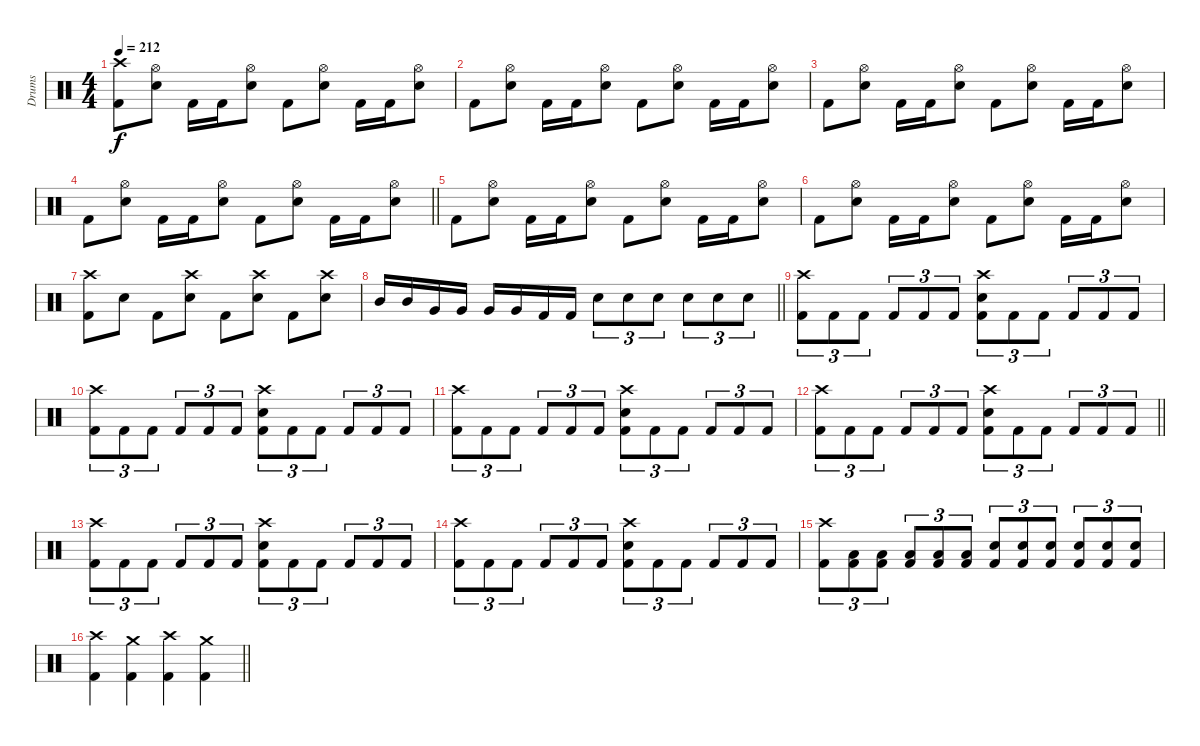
\track ("Drums" "Drums") {instrument percussion}
\staff {score}
\articulation defaults
\ts (4 4)
\tempo 212
\clef neutral
\ks c
("Crash high (hit)" "Kick (hit) 2").8{dy f} ("Hi-Hat (open)" "Electric Snare (hit)").8 "Kick (hit) 2".16 "Kick (hit) 2".16 ("Hi-Hat (open)" "Electric Snare (hit)").8 "Kick (hit) 2".8 ("Hi-Hat (open)" "Electric Snare (hit)").8 "Kick (hit) 2".16 "Kick (hit) 2".16 ("Hi-Hat (open)" "Electric Snare (hit)").8 |
"Kick (hit) 2".8 ("Hi-Hat (open)" "Electric Snare (hit)").8 "Kick (hit) 2".16 "Kick (hit) 2".16 ("Hi-Hat (open)" "Electric Snare (hit)").8 "Kick (hit) 2".8 ("Hi-Hat (open)" "Electric Snare (hit)").8 "Kick (hit) 2".16 "Kick (hit) 2".16 ("Hi-Hat (open)" "Electric Snare (hit)").8 |
"Kick (hit) 2".8 ("Hi-Hat (open)" "Electric Snare (hit)").8 "Kick (hit) 2".16 "Kick (hit) 2".16 ("Hi-Hat (open)" "Electric Snare (hit)").8 "Kick (hit) 2".8 ("Hi-Hat (open)" "Electric Snare (hit)").8 "Kick (hit) 2".16 "Kick (hit) 2".16 ("Hi-Hat (open)" "Electric Snare (hit)").8 |
\barLineRight lightlight "Kick (hit) 2".8
("Hi-Hat (open)" "Electric Snare (hit)").8 "Kick (hit) 2".16 "Kick (hit) 2".16 ("Hi-Hat (open)" "Electric Snare (hit)").8 "Kick (hit) 2".8 ("Hi-Hat (open)" "Electric Snare (hit)").8 "Kick (hit) 2".16 "Kick (hit) 2".16 ("Hi-Hat (open)" "Electric Snare (hit)").8 |
"Kick (hit) 2".8 ("Hi-Hat (open)" "Electric Snare (hit)").8 "Kick (hit) 2".16 "Kick (hit) 2".16 ("Hi-Hat (open)" "Electric Snare (hit)").8 "Kick (hit) 2".8 ("Hi-Hat (open)" "Electric Snare (hit)").8 "Kick (hit) 2".16 "Kick (hit) 2".16 ("Hi-Hat (open)" "Electric Snare (hit)").8 |
"Kick (hit) 2".8 ("Hi-Hat (open)" "Electric Snare (hit)").8 "Kick (hit) 2".16 "Kick (hit) 2".16 ("Hi-Hat (open)" "Electric Snare (hit)").8 "Kick (hit) 2".8 ("Hi-Hat (open)" "Electric Snare (hit)").8 "Kick (hit) 2".16 "Kick (hit) 2".16 ("Hi-Hat (open)" "Electric Snare (hit)").8 |
("Crash high (hit)" "Kick (hit) 2").8 "Electric Snare (hit)".8 "Kick (hit) 2".8 ("Crash high (hit)" "Electric Snare (hit)").8 "Kick (hit) 2".8 ("Crash high (hit)" "Electric Snare (hit)").8 "Kick (hit) 2".8 ("Crash high (hit)" "Electric Snare (hit)").8 |
\barLineRight lightlight "Mid Tom (hit)".16 "Mid Tom (hit)".16 "Very Low Tom (hit)".16 "Very Low Tom (hit)".16 "Very Low Tom (hit)".16 "Very Low Tom (hit)".16 "Kick (hit) 2".16 "Kick (hit) 2".16 "Electric Snare (hit)".8{tu (3 2)} "Electric Snare (hit)".8{tu (3 2)} "Electric Snare (hit)".8{tu (3 2)} "Electric Snare (hit)".8{tu (3 2)} "Electric Snare (hit)".8{tu (3 2)} "Electric Snare (hit)".8{tu (3 2)}
|
("Crash high (hit)" "Kick (hit) 2").8{tu (3 2)} "Kick (hit) 2".8{tu (3 2)} "Kick (hit) 2".8{tu (3 2)} "Kick (hit) 2".8{tu (3 2)} "Kick (hit) 2".8{tu (3 2)} "Kick (hit) 2".8{tu (3 2)} ("Crash high (hit)" "Electric Snare (hit)" "Kick (hit) 2").8{tu (3 2)} "Kick (hit) 2".8{tu (3 2)} "Kick (hit) 2".8{tu (3 2)} "Kick (hit) 2".8{tu (3 2)} "Kick (hit) 2".8{tu (3 2)} "Kick (hit) 2".8{tu (3 2)} |
("Crash high (hit)" "Kick (hit) 2").8{tu (3 2)} "Kick (hit) 2".8{tu (3 2)} "Kick (hit) 2".8{tu (3 2)} "Kick (hit) 2".8{tu (3 2)} "Kick (hit) 2".8{tu (3 2)} "Kick (hit) 2".8{tu (3 2)} ("Crash high (hit)" "Electric Snare (hit)" "Kick (hit) 2").8{tu (3 2)} "Kick (hit) 2".8{tu (3 2)} "Kick (hit) 2".8{tu (3 2)} "Kick (hit) 2".8{tu (3 2)} "Kick (hit) 2".8{tu (3 2)} "Kick (hit) 2".8{tu (3 2)} |
("Crash high (hit)" "Kick (hit) 2").8{tu (3 2)} "Kick (hit) 2".8{tu (3 2)} "Kick (hit) 2".8{tu (3 2)} "Kick (hit) 2".8{tu (3 2)} "Kick (hit) 2".8{tu (3 2)} "Kick (hit) 2".8{tu (3 2)} ("Crash high (hit)" "Electric Snare (hit)" "Kick (hit) 2").8{tu (3 2)} "Kick (hit) 2".8{tu (3 2)} "Kick (hit) 2".8{tu (3 2)} "Kick (hit) 2".8{tu (3 2)} "Kick (hit) 2".8{tu (3 2)} "Kick (hit) 2".8{tu (3 2)} |
\barLineRight lightlight
("Crash high (hit)" "Kick (hit) 2").8{tu (3 2)} "Kick (hit) 2".8{tu (3 2)} "Kick (hit) 2".8{tu (3 2)} "Kick (hit) 2".8{tu (3 2)} "Kick (hit) 2".8{tu (3 2)} "Kick (hit) 2".8{tu (3 2)} ("Crash high (hit)" "Electric Snare (hit)" "Kick (hit) 2").8{tu (3 2)} "Kick (hit) 2".8{tu (3 2)} "Kick (hit) 2".8{tu (3 2)} "Kick (hit) 2".8{tu (3 2)} "Kick (hit) 2".8{tu (3 2)} "Kick (hit) 2".8{tu (3 2)} |
("Crash high (hit)" "Kick (hit) 2").8{tu (3 2)} "Kick (hit) 2".8{tu (3 2)} "Kick (hit) 2".8{tu (3 2)} "Kick (hit) 2".8{tu (3 2)} "Kick (hit) 2".8{tu (3 2)} "Kick (hit) 2".8{tu (3 2)} ("Crash high (hit)" "Electric Snare (hit)" "Kick (hit) 2").8{tu (3 2)} "Kick (hit) 2".8{tu (3 2)} "Kick (hit) 2".8{tu (3 2)} "Kick (hit) 2".8{tu (3 2)} "Kick (hit) 2".8{tu (3 2)} "Kick (hit) 2".8{tu (3 2)} |
("Crash high (hit)" "Kick (hit) 2").8{tu (3 2)} "Kick (hit) 2".8{tu (3 2)} "Kick (hit) 2".8{tu (3 2)} "Kick (hit) 2".8{tu (3 2)} "Kick (hit) 2".8{tu (3 2)} "Kick (hit) 2".8{tu (3 2)} ("Crash high (hit)" "Electric Snare (hit)" "Kick (hit) 2").8{tu (3 2)} "Kick (hit) 2".8{tu (3 2)} "Kick (hit) 2".8{tu (3 2)} "Kick (hit) 2".8{tu (3 2)} "Kick (hit) 2".8{tu (3 2)} "Kick (hit) 2".8{tu (3 2)} |
("Crash high (hit)" "Kick (hit) 2").8{tu (3 2)} ("Low Tom (hit)" "Kick (hit) 2").8{tu (3 2)} ("Low Tom (hit)" "Kick (hit) 2").8{tu (3 2)} ("Low Tom (hit)" "Kick (hit) 2").8{tu (3 2)} ("Low Tom (hit)" "Kick (hit) 2").8{tu (3 2)} ("Low Tom (hit)" "Kick (hit) 2").8{tu (3 2)} ("Electric Snare (hit)" "Kick (hit) 2").8{tu (3 2)} ("Electric Snare (hit)" "Kick (hit) 2").8{tu (3 2)} ("Electric Snare (hit)" "Kick (hit) 2").8{tu (3 2)} ("Electric Snare (hit)" "Kick (hit) 2").8{tu (3 2)} ("Electric Snare (hit)" "Kick (hit) 2").8{tu (3 2)} ("Electric Snare (hit)" "Kick (hit) 2").8{tu (3 2)} |
\barLineRight lightlight
("Crash high (hit)" "Kick (hit) 2").4 ("Crash medium (hit)" "Kick (hit) 2").4 ("Crash high (hit)" "Kick (hit) 2").4 ("Crash medium (hit)" "Kick (hit) 2").4
